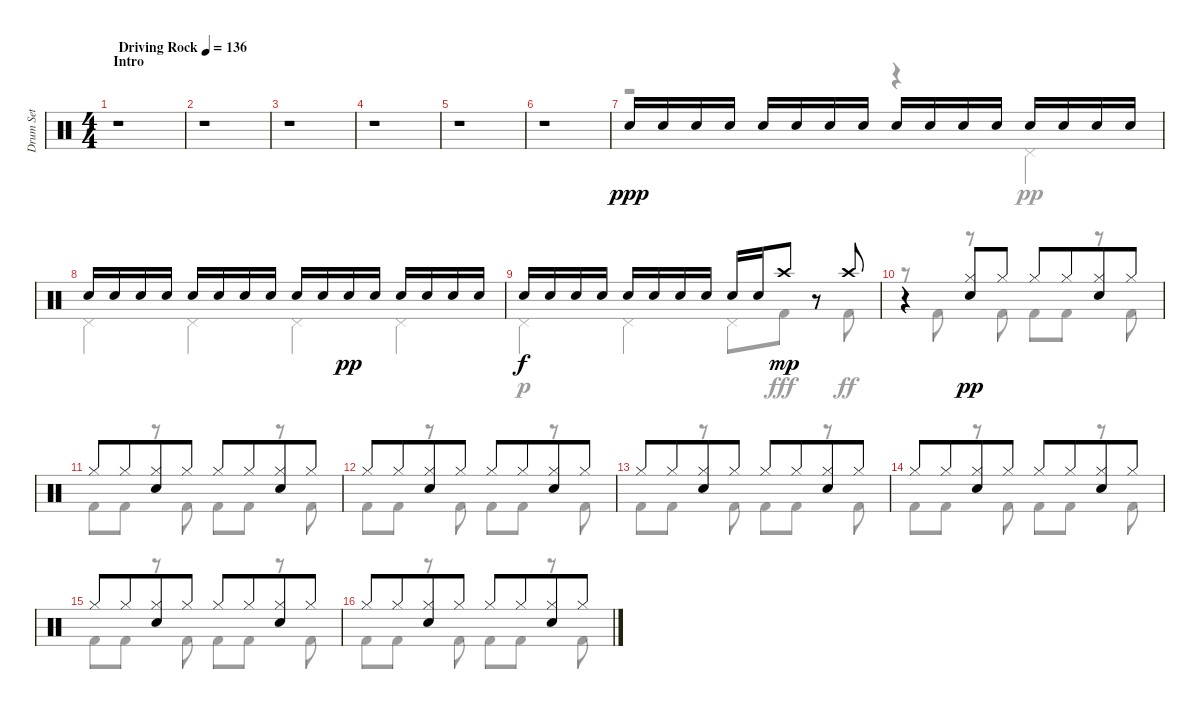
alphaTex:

\track ("Drum Set" "Drum Set") {instrument percussion}
\staff {score}
\articulation defaults
\voice
\ts (4 4)
\section ("" "Intro")
\tempo (136 "Driving Rock")
\clef neutral
\ks c
r.1{dy ppp} |
r.1 |
r.1 |
r.1 |
r.1 |
r.1 |
"Snare (hit) 2".16 "Snare (hit) 2".16 "Snare (hit) 2".16 "Snare (hit) 2".16 "Snare (hit) 2".16 "Snare (hit) 2".16 "Snare (hit) 2".16 "Snare (hit) 2".16 "Snare (hit) 2".16 "Snare (hit) 2".16 "Snare (hit) 2".16 "Snare (hit) 2".16 "Snare (hit) 2".16 "Snare (hit) 2".16 "Snare (hit) 2".16 "Snare (hit) 2".16 |
"Snare (hit) 2".16 "Snare (hit) 2".16 "Snare (hit) 2".16 "Snare (hit) 2".16 "Snare (hit) 2".16 "Snare (hit) 2".16 "Snare (hit) 2".16 "Snare (hit) 2".16 "Snare (hit) 2".16 "Snare (hit) 2".16 "Snare (hit) 2".16{dy pp} "Snare (hit) 2".16 "Snare (hit) 2".16 "Snare (hit) 2".16 "Snare (hit) 2".16 "Snare (hit) 2".16 |
"Snare (hit) 2".16{dy f} "Snare (hit) 2".16 "Snare (hit) 2".16 "Snare (hit) 2".16 "Snare (hit) 2".16 "Snare (hit) 2".16 "Snare (hit) 2".16 "Snare (hit) 2".16 "Snare (hit) 2".16 "Snare (hit) 2".16 "Crash high (hit)".8{dy mp volume 0} r.8 "Crash high (hit)".8{volume 12} |
r.4{beam merge} ("Electric Snare (hit)" "Hi-Hat (closed)").8{dy pp} "Hi-Hat (closed)".8 "Hi-Hat (closed)".8 "Hi-Hat (closed)".8{beam merge} ("Electric Snare (hit)" "Hi-Hat (closed)").8 "Hi-Hat (closed)".8 |
"Hi-Hat (closed)".8 "Hi-Hat (closed)".8{beam merge} ("Electric Snare (hit)" "Hi-Hat (closed)").8 "Hi-Hat (closed)".8 "Hi-Hat (closed)".8 "Hi-Hat (closed)".8{beam merge} ("Electric Snare (hit)" "Hi-Hat (closed)").8 "Hi-Hat (closed)".8 |
"Hi-Hat (closed)".8 "Hi-Hat (closed)".8{beam merge} ("Electric Snare (hit)" "Hi-Hat (closed)").8 "Hi-Hat (closed)".8 "Hi-Hat (closed)".8 "Hi-Hat (closed)".8{beam merge} ("Electric Snare (hit)" "Hi-Hat (closed)").8 "Hi-Hat (closed)".8 |
"Hi-Hat (closed)".8 "Hi-Hat (closed)".8{beam merge} ("Electric Snare (hit)" "Hi-Hat (closed)").8 "Hi-Hat (closed)".8 "Hi-Hat (closed)".8 "Hi-Hat (closed)".8{beam merge} ("Electric Snare (hit)" "Hi-Hat (closed)").8 "Hi-Hat (closed)".8 |
"Hi-Hat (closed)".8 "Hi-Hat (closed)".8{beam merge} ("Electric Snare (hit)" "Hi-Hat (closed)").8 "Hi-Hat (closed)".8 "Hi-Hat (closed)".8 "Hi-Hat (closed)".8{beam merge} ("Electric Snare (hit)" "Hi-Hat (closed)").8 "Hi-Hat (closed)".8 |
"Hi-Hat (closed)".8 "Hi-Hat (closed)".8{beam merge} ("Electric Snare (hit)" "Hi-Hat (closed)").8 "Hi-Hat (closed)".8 "Hi-Hat (closed)".8 "Hi-Hat (closed)".8{beam merge} ("Electric Snare (hit)" "Hi-Hat (closed)").8 "Hi-Hat (closed)".8 |
"Hi-Hat (closed)".8 "Hi-Hat (closed)".8{beam merge} ("Electric Snare (hit)" "Hi-Hat (closed)").8 "Hi-Hat (closed)".8 "Hi-Hat (closed)".8 "Hi-Hat (closed)".8{beam merge} ("Electric Snare (hit)" "Hi-Hat (closed)").8 "Hi-Hat (closed)".8
\voice
\clef neutral
\ottava regular
\simile none
\ks c
|
|
|
|
|
|
r.2 r.4 "Pedal Hi-Hat (hit)".4 |
"Pedal Hi-Hat (hit)".4 "Pedal Hi-Hat (hit)".4 "Pedal Hi-Hat (hit)".4 "Pedal Hi-Hat (hit)".4 |
"Pedal Hi-Hat (hit)".4{dy p} "Pedal Hi-Hat (hit)".4 "Pedal Hi-Hat (hit)".8 "Kick (hit) 2".8{dy fff} r.8 "Kick (hit) 2".8{dy ff} |
r.8 "Kick (hit) 2".8 r.8 "Kick (hit) 2".8 "Kick (hit) 2".8 "Kick (hit) 2".8 r.8 "Kick (hit) 2".8 |
"Kick (hit) 2".8 "Kick (hit) 2".8 r.8 "Kick (hit) 2".8 "Kick (hit) 2".8 "Kick (hit) 2".8 r.8 "Kick (hit) 2".8 |
"Kick (hit) 2".8 "Kick (hit) 2".8 r.8 "Kick (hit) 2".8 "Kick (hit) 2".8 "Kick (hit) 2".8 r.8 "Kick (hit) 2".8 |
"Kick (hit) 2".8 "Kick (hit) 2".8 r.8 "Kick (hit) 2".8 "Kick (hit) 2".8 "Kick (hit) 2".8 r.8 "Kick (hit) 2".8 |
"Kick (hit) 2".8 "Kick (hit) 2".8 r.8 "Kick (hit) 2".8 "Kick (hit) 2".8 "Kick (hit) 2".8 r.8 "Kick (hit) 2".8 |
"Kick (hit) 2".8 "Kick (hit) 2".8 r.8 "Kick (hit) 2".8 "Kick (hit) 2".8 "Kick (hit) 2".8 r.8 "Kick (hit) 2".8 |
"Kick (hit) 2".8 "Kick (hit) 2".8 r.8 "Kick (hit) 2".8 "Kick (hit) 2".8 "Kick (hit) 2".8 r.8 "Kick (hit) 2".8
